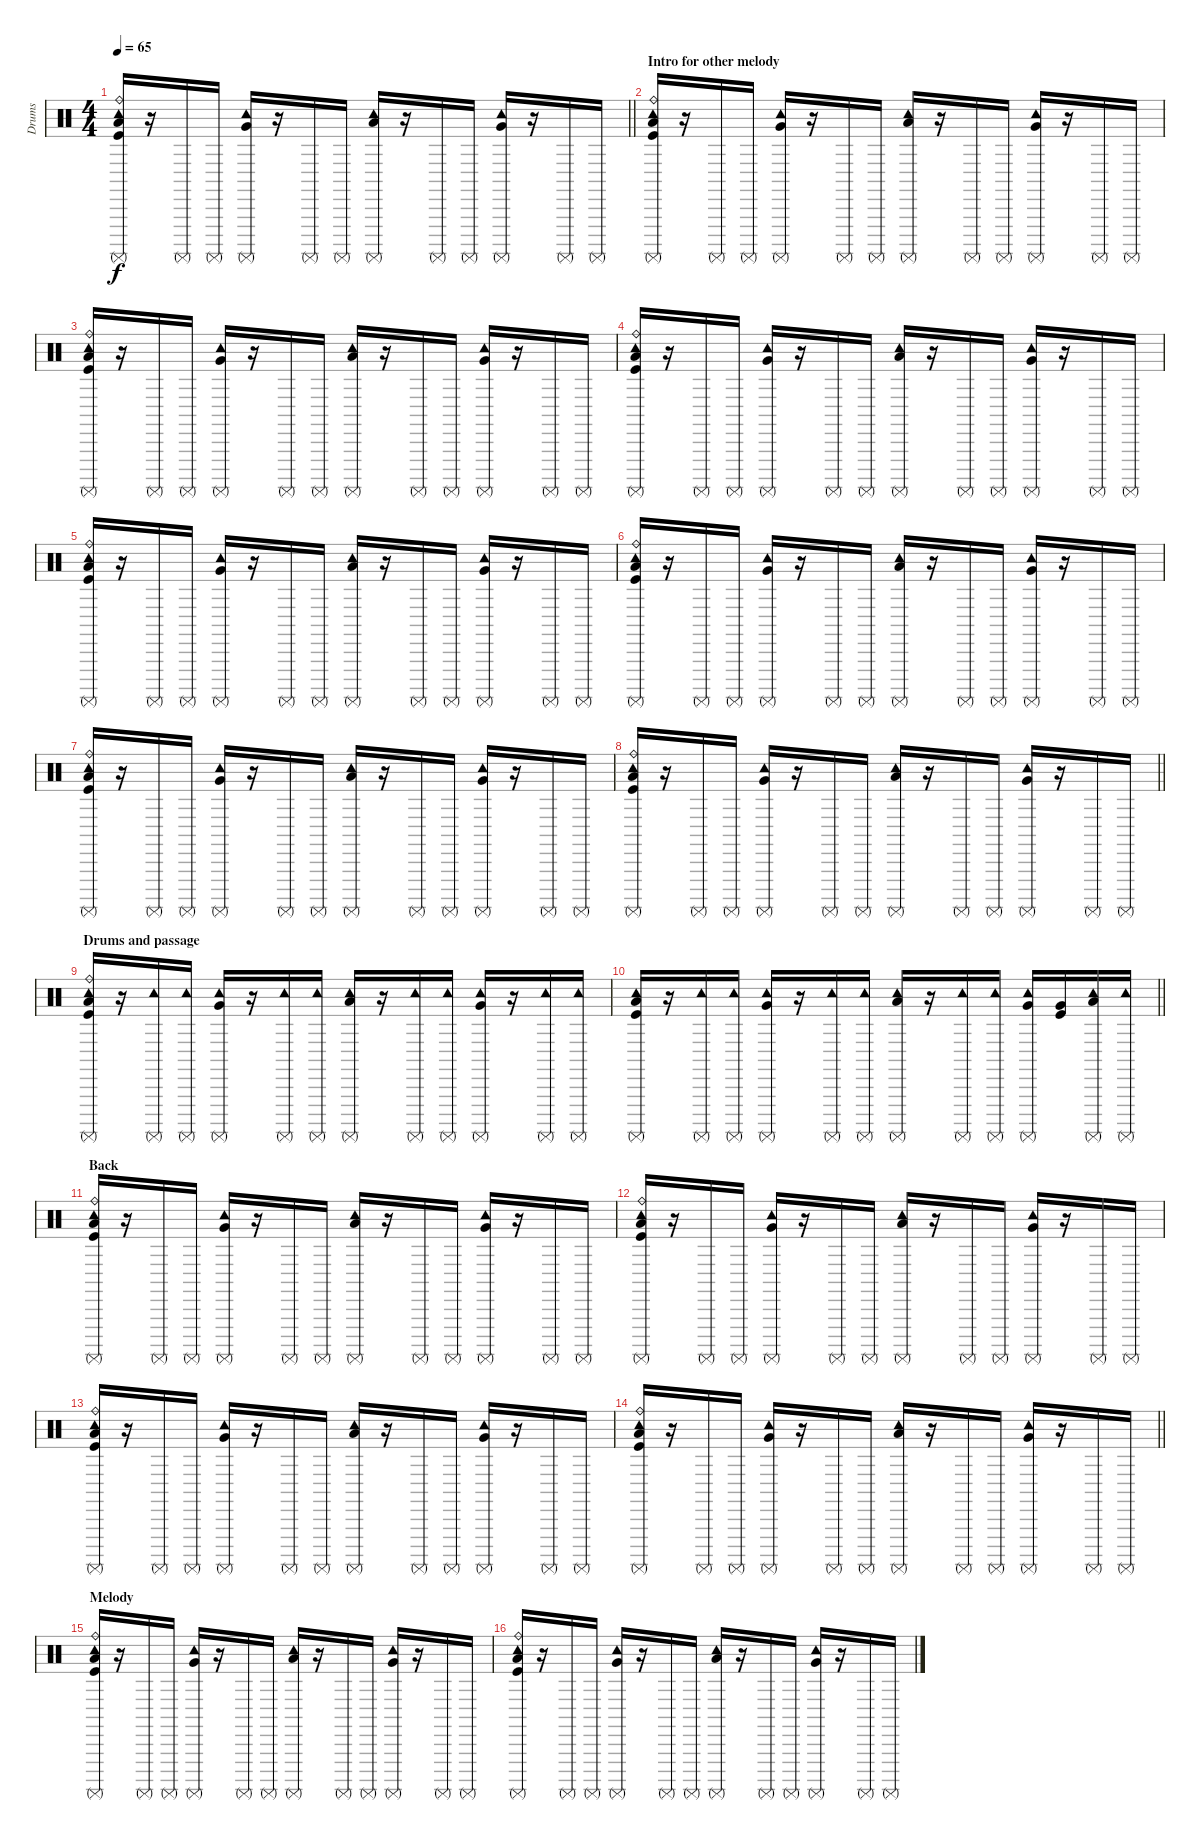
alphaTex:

\track ("Drums" "Drums") {instrument percussion}
\staff {score}
\articulation defaults
\ts (4 4)
\tempo 65
\clef neutral
\barLineRight lightlight
\ks c
("Ride (bell)" "Tambourine (hit)" "Low Floor Tom (hit)" "Surdo (mute)" "Kick (hit)").16{dy f} r.16 "Surdo (mute)".16 "Surdo (mute)".16 ("Tambourine (hit)" "Very Low Tom (hit)" "Surdo (mute)").16 r.16 "Surdo (mute)".16 "Surdo (mute)".16 ("Tambourine (hit)" "Low Floor Tom (hit)" "Surdo (mute)").16 r.16 "Surdo (mute)".16 "Surdo (mute)".16 ("Tambourine (hit)" "Very Low Tom (hit)" "Surdo (mute)").16 r.16 "Surdo (mute)".16 "Surdo (mute)".16 |
\section ("" "Intro for other melody")
("Ride (bell)" "Tambourine (hit)" "Low Floor Tom (hit)" "Surdo (mute)" "Kick (hit)").16 r.16 "Surdo (mute)".16 "Surdo (mute)".16 ("Tambourine (hit)" "Very Low Tom (hit)" "Surdo (mute)").16 r.16 "Surdo (mute)".16 "Surdo (mute)".16 ("Tambourine (hit)" "Low Floor Tom (hit)" "Surdo (mute)").16 r.16 "Surdo (mute)".16 "Surdo (mute)".16 ("Tambourine (hit)" "Very Low Tom (hit)" "Surdo (mute)").16 r.16 "Surdo (mute)".16 "Surdo (mute)".16 |
("Ride (bell)" "Tambourine (hit)" "Low Floor Tom (hit)" "Surdo (mute)" "Kick (hit)").16 r.16 "Surdo (mute)".16 "Surdo (mute)".16 ("Tambourine (hit)" "Very Low Tom (hit)" "Surdo (mute)").16 r.16 "Surdo (mute)".16 "Surdo (mute)".16 ("Tambourine (hit)" "Low Floor Tom (hit)" "Surdo (mute)").16 r.16 "Surdo (mute)".16 "Surdo (mute)".16 ("Tambourine (hit)" "Very Low Tom (hit)" "Surdo (mute)").16 r.16 "Surdo (mute)".16 "Surdo (mute)".16 |
("Ride (bell)" "Tambourine (hit)" "Low Floor Tom (hit)" "Surdo (mute)" "Kick (hit)").16 r.16 "Surdo (mute)".16 "Surdo (mute)".16 ("Tambourine (hit)" "Very Low Tom (hit)" "Surdo (mute)").16 r.16 "Surdo (mute)".16 "Surdo (mute)".16 ("Tambourine (hit)" "Low Floor Tom (hit)" "Surdo (mute)").16 r.16 "Surdo (mute)".16 "Surdo (mute)".16 ("Tambourine (hit)" "Very Low Tom (hit)" "Surdo (mute)").16 r.16 "Surdo (mute)".16 "Surdo (mute)".16 |
("Ride (bell)" "Tambourine (hit)" "Low Floor Tom (hit)" "Surdo (mute)" "Kick (hit)").16 r.16 "Surdo (mute)".16 "Surdo (mute)".16 ("Tambourine (hit)" "Very Low Tom (hit)" "Surdo (mute)").16 r.16 "Surdo (mute)".16 "Surdo (mute)".16 ("Tambourine (hit)" "Low Floor Tom (hit)" "Surdo (mute)").16 r.16 "Surdo (mute)".16 "Surdo (mute)".16 ("Tambourine (hit)" "Very Low Tom (hit)" "Surdo (mute)").16 r.16 "Surdo (mute)".16 "Surdo (mute)".16 |
("Ride (bell)" "Tambourine (hit)" "Low Floor Tom (hit)" "Surdo (mute)" "Kick (hit)").16 r.16 "Surdo (mute)".16 "Surdo (mute)".16 ("Tambourine (hit)" "Very Low Tom (hit)" "Surdo (mute)").16 r.16 "Surdo (mute)".16 "Surdo (mute)".16 ("Tambourine (hit)" "Low Floor Tom (hit)" "Surdo (mute)").16 r.16 "Surdo (mute)".16 "Surdo (mute)".16 ("Tambourine (hit)" "Very Low Tom (hit)" "Surdo (mute)").16 r.16 "Surdo (mute)".16 "Surdo (mute)".16 |
("Ride (bell)" "Tambourine (hit)" "Low Floor Tom (hit)" "Surdo (mute)" "Kick (hit)").16 r.16 "Surdo (mute)".16 "Surdo (mute)".16 ("Tambourine (hit)" "Very Low Tom (hit)" "Surdo (mute)").16 r.16 "Surdo (mute)".16 "Surdo (mute)".16 ("Tambourine (hit)" "Low Floor Tom (hit)" "Surdo (mute)").16 r.16 "Surdo (mute)".16 "Surdo (mute)".16 ("Tambourine (hit)" "Very Low Tom (hit)" "Surdo (mute)").16 r.16 "Surdo (mute)".16 "Surdo (mute)".16 |
\barLineRight lightlight
("Ride (bell)" "Tambourine (hit)" "Low Floor Tom (hit)" "Surdo (mute)" "Kick (hit)").16 r.16 "Surdo (mute)".16 "Surdo (mute)".16 ("Tambourine (hit)" "Very Low Tom (hit)" "Surdo (mute)").16 r.16 "Surdo (mute)".16 "Surdo (mute)".16 ("Tambourine (hit)" "Low Floor Tom (hit)" "Surdo (mute)").16 r.16 "Surdo (mute)".16 "Surdo (mute)".16 ("Tambourine (hit)" "Very Low Tom (hit)" "Surdo (mute)").16 r.16 "Surdo (mute)".16 "Surdo (mute)".16 |
\section ("" "Drums and passage")
("Ride (bell)" "Tambourine (hit)" "Low Floor Tom (hit)" "Surdo (mute)" "Kick (hit)").16 r.16 ("Tambourine (hit)" "Surdo (mute)").16 ("Tambourine (hit)" "Surdo (mute)").16 ("Tambourine (hit)" "Very Low Tom (hit)" "Surdo (mute)").16 r.16 ("Tambourine (hit)" "Surdo (mute)").16 ("Tambourine (hit)" "Surdo (mute)").16 ("Tambourine (hit)" "Low Floor Tom (hit)" "Surdo (mute)").16 r.16 ("Tambourine (hit)" "Surdo (mute)").16 ("Tambourine (hit)" "Surdo (mute)").16 ("Tambourine (hit)" "Very Low Tom (hit)" "Surdo (mute)").16 r.16 ("Tambourine (hit)" "Surdo (mute)").16 ("Tambourine (hit)" "Surdo (mute)").16 |
\barLineRight lightlight
("Tambourine (hit)" "Low Floor Tom (hit)" "Surdo (mute)" "Kick (hit)").16 r.16 ("Tambourine (hit)" "Surdo (mute)").16 ("Tambourine (hit)" "Surdo (mute)").16 ("Tambourine (hit)" "Very Low Tom (hit)" "Surdo (mute)").16 r.16 ("Tambourine (hit)" "Surdo (mute)").16 ("Tambourine (hit)" "Surdo (mute)").16 ("Tambourine (hit)" "Low Floor Tom (hit)" "Surdo (mute)").16 r.16 ("Tambourine (hit)" "Surdo (mute)").16 ("Tambourine (hit)" "Surdo (mute)").16 ("Tambourine (hit)" "Very Low Tom (hit)" "Surdo (mute)").16 ("Very Low Tom (hit)" "Kick (hit)").16 ("Tambourine (hit)" "Low Floor Tom (hit)" "Surdo (mute)").16 ("Tambourine (hit)" "Surdo (mute)").16 |
\section ("" "Back")
("Ride (bell)" "Tambourine (hit)" "Low Floor Tom (hit)" "Surdo (mute)" "Kick (hit)").16 r.16 "Surdo (mute)".16 "Surdo (mute)".16 ("Tambourine (hit)" "Very Low Tom (hit)" "Surdo (mute)").16 r.16 "Surdo (mute)".16 "Surdo (mute)".16 ("Tambourine (hit)" "Low Floor Tom (hit)" "Surdo (mute)").16 r.16 "Surdo (mute)".16 "Surdo (mute)".16 ("Tambourine (hit)" "Very Low Tom (hit)" "Surdo (mute)").16 r.16 "Surdo (mute)".16 "Surdo (mute)".16 |
("Ride (bell)" "Tambourine (hit)" "Low Floor Tom (hit)" "Surdo (mute)" "Kick (hit)").16 r.16 "Surdo (mute)".16 "Surdo (mute)".16 ("Tambourine (hit)" "Very Low Tom (hit)" "Surdo (mute)").16 r.16 "Surdo (mute)".16 "Surdo (mute)".16 ("Tambourine (hit)" "Low Floor Tom (hit)" "Surdo (mute)").16 r.16 "Surdo (mute)".16 "Surdo (mute)".16 ("Tambourine (hit)" "Very Low Tom (hit)" "Surdo (mute)").16 r.16 "Surdo (mute)".16 "Surdo (mute)".16 |
("Ride (bell)" "Tambourine (hit)" "Low Floor Tom (hit)" "Surdo (mute)" "Kick (hit)").16 r.16 "Surdo (mute)".16 "Surdo (mute)".16 ("Tambourine (hit)" "Very Low Tom (hit)" "Surdo (mute)").16 r.16 "Surdo (mute)".16 "Surdo (mute)".16 ("Tambourine (hit)" "Low Floor Tom (hit)" "Surdo (mute)").16 r.16 "Surdo (mute)".16 "Surdo (mute)".16 ("Tambourine (hit)" "Very Low Tom (hit)" "Surdo (mute)").16 r.16 "Surdo (mute)".16 "Surdo (mute)".16 |
\barLineRight lightlight
("Ride (bell)" "Tambourine (hit)" "Low Floor Tom (hit)" "Surdo (mute)" "Kick (hit)").16 r.16 "Surdo (mute)".16 "Surdo (mute)".16 ("Tambourine (hit)" "Very Low Tom (hit)" "Surdo (mute)").16 r.16 "Surdo (mute)".16 "Surdo (mute)".16 ("Tambourine (hit)" "Low Floor Tom (hit)" "Surdo (mute)").16 r.16 "Surdo (mute)".16 "Surdo (mute)".16 ("Tambourine (hit)" "Very Low Tom (hit)" "Surdo (mute)").16 r.16 "Surdo (mute)".16 "Surdo (mute)".16 |
\section ("" "Melody")
("Ride (bell)" "Tambourine (hit)" "Low Floor Tom (hit)" "Surdo (mute)" "Kick (hit)").16 r.16 "Surdo (mute)".16 "Surdo (mute)".16 ("Tambourine (hit)" "Very Low Tom (hit)" "Surdo (mute)").16 r.16 "Surdo (mute)".16 "Surdo (mute)".16 ("Tambourine (hit)" "Low Floor Tom (hit)" "Surdo (mute)").16 r.16 "Surdo (mute)".16 "Surdo (mute)".16 ("Tambourine (hit)" "Very Low Tom (hit)" "Surdo (mute)").16 r.16 "Surdo (mute)".16 "Surdo (mute)".16 |
("Ride (bell)" "Tambourine (hit)" "Low Floor Tom (hit)" "Surdo (mute)" "Kick (hit)").16 r.16 "Surdo (mute)".16 "Surdo (mute)".16 ("Tambourine (hit)" "Very Low Tom (hit)" "Surdo (mute)").16 r.16 "Surdo (mute)".16 "Surdo (mute)".16 ("Tambourine (hit)" "Low Floor Tom (hit)" "Surdo (mute)").16 r.16 "Surdo (mute)".16 "Surdo (mute)".16 ("Tambourine (hit)" "Very Low Tom (hit)" "Surdo (mute)").16 r.16 "Surdo (mute)".16 "Surdo (mute)".16
